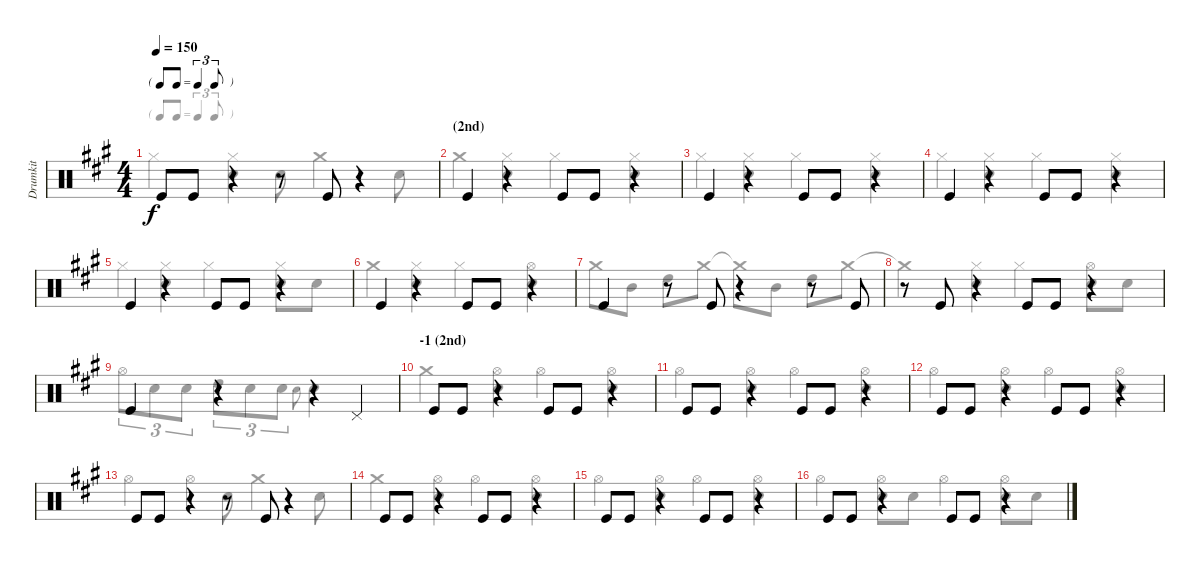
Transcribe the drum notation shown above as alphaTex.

\track ("Drumkit" "Drumkit") {instrument percussion}
\staff {score}
\articulation defaults
\voice
\ts (4 4)
\tf triplet8th
\tempo 150
\clef neutral
\ks a "Kick (hit)".8{dy f} "Kick (hit)".8
r.4 r.8 "Kick (hit)".8 r.4 |
\section ("" "(2nd)")
"Kick (hit)".4 r.4 "Kick (hit)".8 "Kick (hit)".8 r.4 |
"Kick (hit)".4 r.4 "Kick (hit)".8 "Kick (hit)".8 r.4 |
"Kick (hit)".4 r.4 "Kick (hit)".8 "Kick (hit)".8 r.4 |
"Kick (hit)".4 r.4 "Kick (hit)".8 "Kick (hit)".8 r.4 |
"Kick (hit)".4 r.4 "Kick (hit)".8 "Kick (hit)".8 r.4 |
"Kick (hit)".4 r.8 "Kick (hit)".8 r.4 r.8 "Kick (hit)".8 |
r.8 "Kick (hit)".8 r.4 "Kick (hit)".8 "Kick (hit)".8 r.4 |
"Kick (hit)".4 r.4 r.4 "Pedal Hi-Hat (hit)".4 |
\section ("" "-1 (2nd)")
"Kick (hit)".8 "Kick (hit)".8 r.4 "Kick (hit)".8 "Kick (hit)".8 r.4 |
"Kick (hit)".8 "Kick (hit)".8 r.4 "Kick (hit)".8 "Kick (hit)".8 r.4 |
"Kick (hit)".8 "Kick (hit)".8 r.4 "Kick (hit)".8 "Kick (hit)".8 r.4 |
"Kick (hit)".8 "Kick (hit)".8 r.4 r.8 "Kick (hit)".8 r.4 |
"Kick (hit)".8 "Kick (hit)".8 r.4 "Kick (hit)".8 "Kick (hit)".8 r.4 |
"Kick (hit)".8 "Kick (hit)".8 r.4 "Kick (hit)".8 "Kick (hit)".8 r.4 |
"Kick (hit)".8 "Kick (hit)".8 r.4 "Kick (hit)".8 "Kick (hit)".8 r.4
\voice
\clef neutral
\ottava regular
\simile none
\ks a "Hi-Hat (closed)".4{dy f}
("Hi-Hat (closed)" "Snare (hit) 2").4 "Snare (hit) 2".8 "Crash medium (hit)".4 "Snare (hit) 2".8 |
"Crash medium (hit)".4 ("Hi-Hat (closed)" "Snare (hit) 2").4 "Hi-Hat (closed)".4 ("Hi-Hat (closed)" "Snare (hit) 2").4 |
"Hi-Hat (closed)".4 ("Hi-Hat (closed)" "Snare (hit) 2").4 "Hi-Hat (closed)".4 ("Hi-Hat (closed)" "Snare (hit) 2").4 |
"Hi-Hat (closed)".4 ("Hi-Hat (closed)" "Snare (hit) 2").4 "Hi-Hat (closed)".4 ("Hi-Hat (closed)" "Snare (hit) 2").4 |
"Hi-Hat (closed)".4 ("Hi-Hat (closed)" "Snare (hit) 2").4 "Hi-Hat (closed)".4 ("Hi-Hat (closed)" "Snare (hit) 2").8 "Snare (hit) 2".8 |
"Crash medium (hit)".4 ("Hi-Hat (closed)" "Snare (hit) 2").4 "Hi-Hat (closed)".4 ("Hi-Hat (open)" "Snare (hit) 2").4 |
"Crash medium (hit)".8 "Mid Tom (hit)".8 "High Tom (hit)".8 "Crash medium (hit)".8 "Crash medium (hit)"{t}.8 "Mid Tom (hit)".8 "High Tom (hit)".8 "Crash medium (hit)".8 |
"Crash medium (hit)"{t}.4 ("Snare (hit) 2" "Hi-Hat (closed)").4 "Hi-Hat (closed)".4 ("Hi-Hat (open)" "Snare (hit) 2").8 "Snare (hit) 2".8 |
"Hi-Hat (open)".8{tu (3 2)} "Snare (hit) 2".8{tu (3 2)} "Snare (hit) 2".8{tu (3 2)} "High Tom (hit)".8{tu (3 2)} "Snare (hit) 2".8{tu (3 2)} "Snare (hit) 2".8{tu (3 2)} "Snare (hit)".8{gr onbeat} "Snare (hit) 2".4 |
"Crash medium (hit)".4 ("Hi-Hat (open)" "Snare (hit) 2").4 "Hi-Hat (open)".4 ("Hi-Hat (open)" "Snare (hit) 2").4 |
"Hi-Hat (open)".4 ("Hi-Hat (open)" "Snare (hit) 2").4 "Hi-Hat (open)".4 ("Hi-Hat (open)" "Snare (hit) 2").4 |
"Hi-Hat (open)".4 ("Hi-Hat (open)" "Snare (hit) 2").4 "Hi-Hat (open)".4 ("Hi-Hat (open)" "Snare (hit) 2").4 |
"Hi-Hat (open)".4 "Hi-Hat (open)".4 "Snare (hit) 2".8 "Crash medium (hit)".4 "Snare (hit) 2".8 |
"Crash medium (hit)".4 ("Hi-Hat (open)" "Snare (hit) 2").4 "Hi-Hat (open)".4 ("Hi-Hat (open)" "Snare (hit) 2").4 |
"Hi-Hat (open)".4 ("Hi-Hat (open)" "Snare (hit) 2").4 "Hi-Hat (open)".4 ("Hi-Hat (open)" "Snare (hit) 2").4 |
"Hi-Hat (open)".4 ("Hi-Hat (open)" "Snare (hit) 2").8 "Snare (hit) 2".8 "Hi-Hat (open)".4 ("Hi-Hat (open)" "Snare (hit) 2").8 "Snare (hit) 2".8
